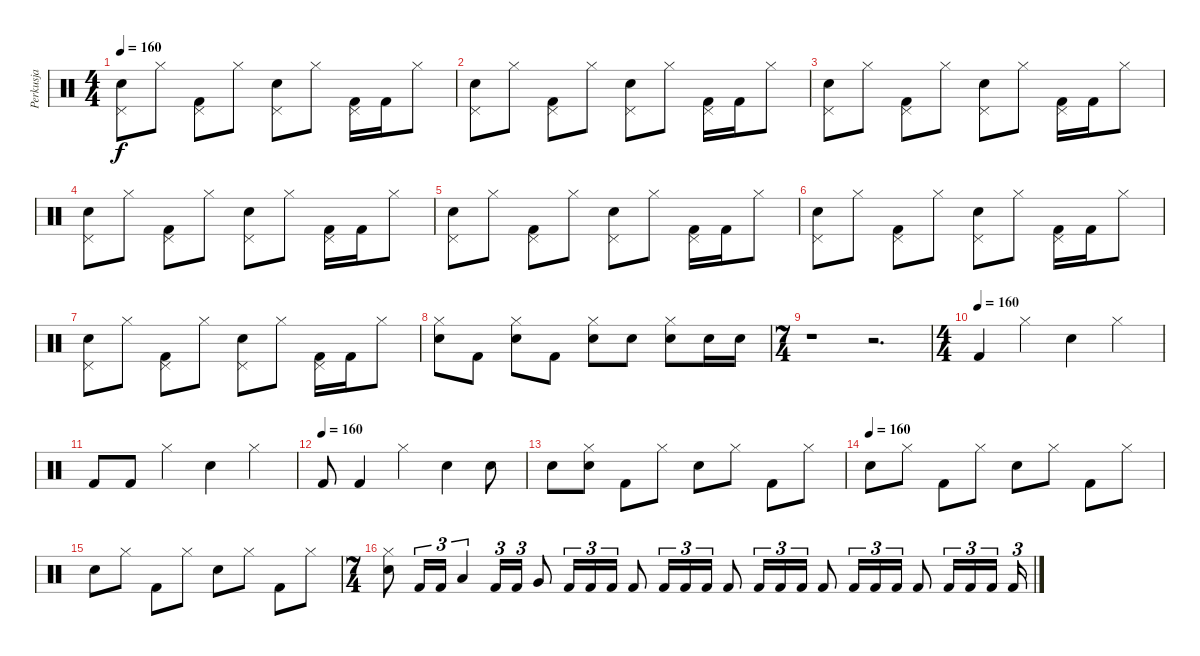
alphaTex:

\track ("Perkusja" "Perkusja") {instrument percussion}
\staff {score}
\articulation defaults
\ts (4 4)
\tempo 160
\clef neutral
\ks c
("Snare (hit) 2" "Pedal Hi-Hat (hit)").8{dy f} "Hi-Hat (closed)".8 ("Kick (hit) 2" "Pedal Hi-Hat (hit)").8 "Hi-Hat (closed)".8 ("Snare (hit) 2" "Pedal Hi-Hat (hit)").8 "Hi-Hat (closed)".8 ("Kick (hit) 2" "Pedal Hi-Hat (hit)").16 "Kick (hit) 2".16 "Hi-Hat (closed)".8 |
("Snare (hit) 2" "Pedal Hi-Hat (hit)").8 "Hi-Hat (closed)".8 ("Kick (hit) 2" "Pedal Hi-Hat (hit)").8 "Hi-Hat (closed)".8 ("Snare (hit) 2" "Pedal Hi-Hat (hit)").8 "Hi-Hat (closed)".8 ("Kick (hit) 2" "Pedal Hi-Hat (hit)").16 "Kick (hit) 2".16 "Hi-Hat (closed)".8 |
("Snare (hit) 2" "Pedal Hi-Hat (hit)").8 "Hi-Hat (closed)".8 ("Kick (hit) 2" "Pedal Hi-Hat (hit)").8 "Hi-Hat (closed)".8 ("Snare (hit) 2" "Pedal Hi-Hat (hit)").8 "Hi-Hat (closed)".8 ("Kick (hit) 2" "Pedal Hi-Hat (hit)").16 "Kick (hit) 2".16 "Hi-Hat (closed)".8 |
("Snare (hit) 2" "Pedal Hi-Hat (hit)").8 "Hi-Hat (closed)".8 ("Kick (hit) 2" "Pedal Hi-Hat (hit)").8 "Hi-Hat (closed)".8 ("Snare (hit) 2" "Pedal Hi-Hat (hit)").8 "Hi-Hat (closed)".8 ("Kick (hit) 2" "Pedal Hi-Hat (hit)").16 "Kick (hit) 2".16 "Hi-Hat (closed)".8 |
("Snare (hit) 2" "Pedal Hi-Hat (hit)").8 "Hi-Hat (closed)".8 ("Kick (hit) 2" "Pedal Hi-Hat (hit)").8 "Hi-Hat (closed)".8 ("Snare (hit) 2" "Pedal Hi-Hat (hit)").8 "Hi-Hat (closed)".8 ("Kick (hit) 2" "Pedal Hi-Hat (hit)").16 "Kick (hit) 2".16 "Hi-Hat (closed)".8 |
("Snare (hit) 2" "Pedal Hi-Hat (hit)").8 "Hi-Hat (closed)".8 ("Kick (hit) 2" "Pedal Hi-Hat (hit)").8 "Hi-Hat (closed)".8 ("Snare (hit) 2" "Pedal Hi-Hat (hit)").8 "Hi-Hat (closed)".8 ("Kick (hit) 2" "Pedal Hi-Hat (hit)").16 "Kick (hit) 2".16 "Hi-Hat (closed)".8 |
("Snare (hit) 2" "Pedal Hi-Hat (hit)").8 "Hi-Hat (closed)".8 ("Kick (hit) 2" "Pedal Hi-Hat (hit)").8 "Hi-Hat (closed)".8 ("Snare (hit) 2" "Pedal Hi-Hat (hit)").8 "Hi-Hat (closed)".8 ("Kick (hit) 2" "Pedal Hi-Hat (hit)").16 "Kick (hit) 2".16 "Hi-Hat (closed)".8 |
("Snare (hit) 2" "Hi-Hat (closed)").8 "Kick (hit) 2".8 ("Snare (hit) 2" "Hi-Hat (closed)").8 "Kick (hit) 2".8 ("Snare (hit) 2" "Hi-Hat (closed)").8 "Snare (hit) 2".8 ("Snare (hit) 2" "Hi-Hat (closed)").8 "Snare (hit) 2".16 "Snare (hit) 2".16 |
\ts (7 4)
r.1 r.2{d} |
\ts (4 4)
\tempo (160)
"Kick (hit) 2".4 "Hi-Hat (closed)".4 "Snare (hit) 2".4 "Hi-Hat (closed)".4 |
"Kick (hit) 2".8 "Kick (hit) 2".8 "Hi-Hat (closed)".4 "Snare (hit) 2".4 "Hi-Hat (closed)".4 |
\tempo (160)
"Kick (hit) 2".8 "Kick (hit) 2".4 "Hi-Hat (closed)".4 "Snare (hit) 2".4 "Snare (hit) 2".8 |
"Snare (hit) 2".8 ("Snare (hit) 2" "Hi-Hat (closed)").8 "Kick (hit) 2".8 "Hi-Hat (closed)".8 "Snare (hit) 2".8 "Hi-Hat (closed)".8 "Kick (hit) 2".8 "Hi-Hat (closed)".8 |
\tempo (160)
"Snare (hit) 2".8 "Hi-Hat (closed)".8 "Kick (hit) 2".8 "Hi-Hat (closed)".8 "Snare (hit) 2".8 "Hi-Hat (closed)".8 "Kick (hit) 2".8 "Hi-Hat (closed)".8 |
"Snare (hit) 2".8 "Hi-Hat (closed)".8 "Kick (hit) 2".8 "Hi-Hat (closed)".8 "Snare (hit) 2".8 "Hi-Hat (closed)".8 "Kick (hit) 2".8 "Hi-Hat (closed)".8 |
\ts (7 4)
("Snare (hit) 2" "Hi-Hat (closed)").8 "Kick (hit) 2".16{tu (3 2)} "Kick (hit) 2".16{tu (3 2)} "Low Floor Tom (hit)".4{tu (3 2)} "Kick (hit) 2".16{tu (3 2)} "Kick (hit) 2".16{tu (3 2)} "Very Low Tom (hit)".8 "Kick (hit) 2".16{tu (3 2)} "Kick (hit) 2".16{tu (3 2)} "Kick (hit) 2".16{tu (3 2)} "Kick (hit) 2".8 "Kick (hit) 2".16{tu (3 2)} "Kick (hit) 2".16{tu (3 2)} "Kick (hit) 2".16{tu (3 2)} "Kick (hit) 2".8 "Kick (hit) 2".16{tu (3 2)} "Kick (hit) 2".16{tu (3 2)} "Kick (hit) 2".16{tu (3 2)} "Kick (hit) 2".8 "Kick (hit) 2".16{tu (3 2)} "Kick (hit) 2".16{tu (3 2)} "Kick (hit) 2".16{tu (3 2)} "Kick (hit) 2".8 "Kick (hit) 2".16{tu (3 2)} "Kick (hit) 2".16{tu (3 2)} "Kick (hit) 2".16{tu (3 2)} "Kick (hit) 2".16{tu (3 2)}
